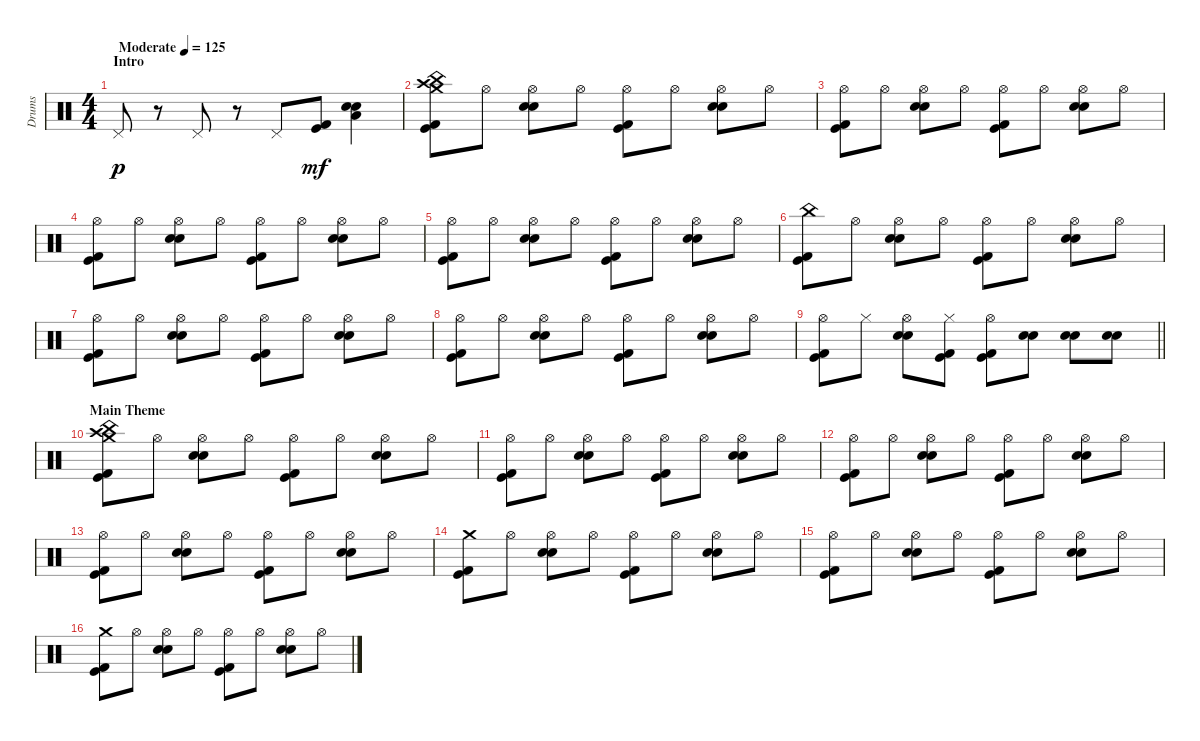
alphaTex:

\track ("Drums" "Drums") {instrument percussion}
\staff {score}
\articulation defaults
\ts (4 4)
\section ("" "Intro")
\tempo (125 "Moderate")
\clef neutral
\ks c "Pedal Hi-Hat (hit)".8{dy p}
r.8 "Pedal Hi-Hat (hit)".8 r.8 "Pedal Hi-Hat (hit)".8 ("Kick (hit) 2" "Kick (hit)").8{dy mf} ("Low Floor Tom (hit)" "Snare (hit) 2" "Electric Snare (hit)").4 |
("Crash high (hit)" "Crash medium (hit)" "China (hit)" "Kick (hit) 2" "Kick (hit)").8 "Hi-Hat (open)".8 ("Hi-Hat (open)" "Snare (hit) 2" "Electric Snare (hit)").8 "Hi-Hat (open)".8 ("Hi-Hat (open)" "Kick (hit) 2" "Kick (hit)").8 "Hi-Hat (open)".8 ("Hi-Hat (open)" "Snare (hit) 2" "Electric Snare (hit)").8 "Hi-Hat (open)".8 |
("Hi-Hat (open)" "Kick (hit) 2" "Kick (hit)").8 "Hi-Hat (open)".8 ("Hi-Hat (open)" "Snare (hit) 2" "Electric Snare (hit)").8 "Hi-Hat (open)".8 ("Hi-Hat (open)" "Kick (hit) 2" "Kick (hit)").8 "Hi-Hat (open)".8 ("Hi-Hat (open)" "Snare (hit) 2" "Electric Snare (hit)").8 "Hi-Hat (open)".8 |
("Hi-Hat (open)" "Kick (hit) 2" "Kick (hit)").8 "Hi-Hat (open)".8 ("Hi-Hat (open)" "Snare (hit) 2" "Electric Snare (hit)").8 "Hi-Hat (open)".8 ("Hi-Hat (open)" "Kick (hit) 2" "Kick (hit)").8 "Hi-Hat (open)".8 ("Hi-Hat (open)" "Snare (hit) 2" "Electric Snare (hit)").8 "Hi-Hat (open)".8 |
("Hi-Hat (open)" "Kick (hit) 2" "Kick (hit)").8 "Hi-Hat (open)".8 ("Hi-Hat (open)" "Snare (hit) 2" "Electric Snare (hit)").8 "Hi-Hat (open)".8 ("Hi-Hat (open)" "Kick (hit) 2" "Kick (hit)").8 "Hi-Hat (open)".8 ("Hi-Hat (open)" "Snare (hit) 2" "Electric Snare (hit)").8 "Hi-Hat (open)".8 |
("China (hit)" "Kick (hit) 2" "Kick (hit)").8 "Hi-Hat (open)".8 ("Hi-Hat (open)" "Snare (hit) 2" "Electric Snare (hit)").8 "Hi-Hat (open)".8 ("Hi-Hat (open)" "Kick (hit) 2" "Kick (hit)").8 "Hi-Hat (open)".8 ("Hi-Hat (open)" "Snare (hit) 2" "Electric Snare (hit)").8 "Hi-Hat (open)".8 |
("Hi-Hat (open)" "Kick (hit) 2" "Kick (hit)").8 "Hi-Hat (open)".8 ("Hi-Hat (open)" "Snare (hit) 2" "Electric Snare (hit)").8 "Hi-Hat (open)".8 ("Hi-Hat (open)" "Kick (hit) 2" "Kick (hit)").8 "Hi-Hat (open)".8 ("Hi-Hat (open)" "Snare (hit) 2" "Electric Snare (hit)").8 "Hi-Hat (open)".8 |
("Hi-Hat (open)" "Kick (hit) 2" "Kick (hit)").8 "Hi-Hat (open)".8 ("Hi-Hat (open)" "Snare (hit) 2" "Electric Snare (hit)").8 "Hi-Hat (open)".8 ("Hi-Hat (open)" "Kick (hit) 2" "Kick (hit)").8 "Hi-Hat (open)".8 ("Hi-Hat (open)" "Snare (hit) 2" "Electric Snare (hit)").8 "Hi-Hat (open)".8 |
\barLineRight lightlight
("Hi-Hat (open)" "Kick (hit) 2" "Kick (hit)").8 "Hi-Hat (closed)".8 ("Hi-Hat (open)" "Snare (hit) 2" "Electric Snare (hit)").8 ("Hi-Hat (closed)" "Kick (hit) 2" "Kick (hit)").8 ("Hi-Hat (open)" "Kick (hit) 2" "Kick (hit)").8 ("Snare (hit) 2" "Electric Snare (hit)").8 ("Snare (hit) 2" "Electric Snare (hit)").8 ("Snare (hit) 2" "Electric Snare (hit)").8 |
\section ("" "Main Theme")
("Crash high (hit)" "Crash medium (hit)" "China (hit)" "Kick (hit) 2" "Kick (hit)").8 "Hi-Hat (open)".8 ("Hi-Hat (open)" "Snare (hit) 2" "Electric Snare (hit)").8 "Hi-Hat (open)".8 ("Hi-Hat (open)" "Kick (hit) 2" "Kick (hit)").8 "Hi-Hat (open)".8 ("Hi-Hat (open)" "Snare (hit) 2" "Electric Snare (hit)").8 "Hi-Hat (open)".8 |
("Hi-Hat (open)" "Kick (hit) 2" "Kick (hit)").8 "Hi-Hat (open)".8 ("Hi-Hat (open)" "Snare (hit) 2" "Electric Snare (hit)").8 "Hi-Hat (open)".8 ("Hi-Hat (open)" "Kick (hit) 2" "Kick (hit)").8 "Hi-Hat (open)".8 ("Hi-Hat (open)" "Snare (hit) 2" "Electric Snare (hit)").8 "Hi-Hat (open)".8 |
("Hi-Hat (open)" "Kick (hit) 2" "Kick (hit)").8 "Hi-Hat (open)".8 ("Hi-Hat (open)" "Snare (hit) 2" "Electric Snare (hit)").8 "Hi-Hat (open)".8 ("Hi-Hat (open)" "Kick (hit) 2" "Kick (hit)").8 "Hi-Hat (open)".8 ("Hi-Hat (open)" "Snare (hit) 2" "Electric Snare (hit)").8 "Hi-Hat (open)".8 |
("Hi-Hat (open)" "Kick (hit) 2" "Kick (hit)").8 "Hi-Hat (open)".8 ("Hi-Hat (open)" "Snare (hit) 2" "Electric Snare (hit)").8 "Hi-Hat (open)".8 ("Hi-Hat (open)" "Kick (hit) 2" "Kick (hit)").8 "Hi-Hat (open)".8 ("Hi-Hat (open)" "Snare (hit) 2" "Electric Snare (hit)").8 "Hi-Hat (open)".8 |
("Crash medium (hit)" "Kick (hit) 2" "Kick (hit)").8 "Hi-Hat (open)".8 ("Hi-Hat (open)" "Snare (hit) 2" "Electric Snare (hit)").8 "Hi-Hat (open)".8 ("Hi-Hat (open)" "Kick (hit) 2" "Kick (hit)").8 "Hi-Hat (open)".8 ("Hi-Hat (open)" "Snare (hit) 2" "Electric Snare (hit)").8 "Hi-Hat (open)".8 |
("Hi-Hat (open)" "Kick (hit) 2" "Kick (hit)").8 "Hi-Hat (open)".8 ("Hi-Hat (open)" "Snare (hit) 2" "Electric Snare (hit)").8 "Hi-Hat (open)".8 ("Hi-Hat (open)" "Kick (hit) 2" "Kick (hit)").8 "Hi-Hat (open)".8 ("Hi-Hat (open)" "Snare (hit) 2" "Electric Snare (hit)").8 "Hi-Hat (open)".8 |
("Crash medium (hit)" "Kick (hit) 2" "Kick (hit)").8 "Hi-Hat (open)".8 ("Hi-Hat (open)" "Snare (hit) 2" "Electric Snare (hit)").8 "Hi-Hat (open)".8 ("Hi-Hat (open)" "Kick (hit) 2" "Kick (hit)").8 "Hi-Hat (open)".8 ("Hi-Hat (open)" "Snare (hit) 2" "Electric Snare (hit)").8 "Hi-Hat (open)".8
